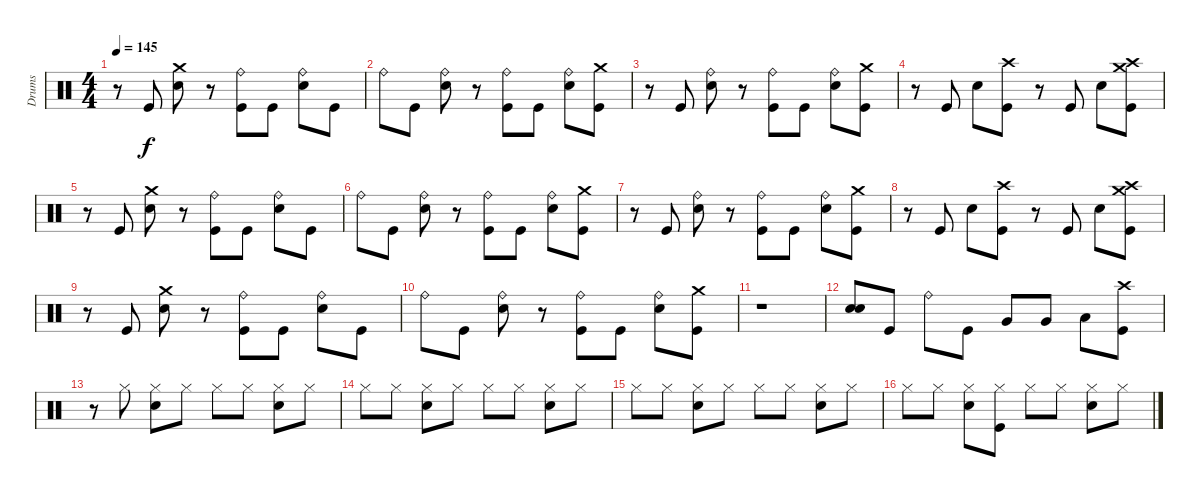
\track ("Drums" "Drums") {instrument percussion}
\staff {score}
\articulation defaults
\ts (4 4)
\tempo 145
\clef neutral
\ks c
r.8{dy f} "Kick (hit)".8 ("Crash medium (hit)" "Snare (hit) 2").8 r.8 ("Ride (bell)" "Kick (hit)").8 "Kick (hit)".8 ("Ride (bell)" "Snare (hit) 2").8 "Kick (hit)".8 |
"Ride (bell)".8 "Kick (hit)".8 ("Ride (bell)" "Snare (hit) 2").8 r.8 ("Ride (bell)" "Kick (hit)").8 "Kick (hit)".8 ("Ride (bell)" "Snare (hit) 2").8 ("Crash medium (hit)" "Kick (hit)").8 |
r.8 "Kick (hit)".8 ("Ride (bell)" "Snare (hit) 2").8 r.8 ("Ride (bell)" "Kick (hit)").8 "Kick (hit)".8 ("Ride (bell)" "Snare (hit) 2").8 ("Crash medium (hit)" "Kick (hit)").8 |
r.8 "Kick (hit)".8 "Snare (hit) 2".8 ("Crash high (hit)" "Kick (hit)").8 r.8 "Kick (hit)".8 "Snare (hit) 2".8 ("Crash high (hit)" "Crash medium (hit)" "Kick (hit)").8 |
r.8 "Kick (hit)".8 ("Crash medium (hit)" "Snare (hit) 2").8 r.8 ("Ride (bell)" "Kick (hit)").8 "Kick (hit)".8 ("Ride (bell)" "Snare (hit) 2").8 "Kick (hit)".8 |
"Ride (bell)".8 "Kick (hit)".8 ("Ride (bell)" "Snare (hit) 2").8 r.8 ("Ride (bell)" "Kick (hit)").8 "Kick (hit)".8 ("Ride (bell)" "Snare (hit) 2").8 ("Crash medium (hit)" "Kick (hit)").8 |
r.8 "Kick (hit)".8 ("Ride (bell)" "Snare (hit) 2").8 r.8 ("Ride (bell)" "Kick (hit)").8 "Kick (hit)".8 ("Ride (bell)" "Snare (hit) 2").8 ("Crash medium (hit)" "Kick (hit)").8 |
r.8 "Kick (hit)".8 "Snare (hit) 2".8 ("Crash high (hit)" "Kick (hit)").8 r.8 "Kick (hit)".8 "Snare (hit) 2".8 ("Crash high (hit)" "Crash medium (hit)" "Kick (hit)").8 |
r.8 "Kick (hit)".8 ("Crash medium (hit)" "Snare (hit) 2").8 r.8 ("Ride (bell)" "Kick (hit)").8 "Kick (hit)".8 ("Ride (bell)" "Snare (hit) 2").8 "Kick (hit)".8 |
"Ride (bell)".8 "Kick (hit)".8 ("Ride (bell)" "Snare (hit) 2").8 r.8 ("Ride (bell)" "Kick (hit)").8 "Kick (hit)".8 ("Ride (bell)" "Snare (hit) 2").8 ("Crash medium (hit)" "Kick (hit)").8 |
r.1 |
("Snare (hit) 2" "Snare (hit) 2").8 "Kick (hit)".8 "Ride (bell)".8 "Kick (hit)".8 "Very Low Tom (hit)".8 "Very Low Tom (hit)".8 "Low Floor Tom (hit)".8 ("Crash high (hit)" "Kick (hit)").8 |
r.8 "Hi-Hat (closed)".8 ("Hi-Hat (closed)" "Snare (hit) 2").8 "Hi-Hat (closed)".8 "Hi-Hat (closed)".8 "Hi-Hat (closed)".8 ("Hi-Hat (closed)" "Snare (hit) 2").8 "Hi-Hat (closed)".8 |
"Hi-Hat (closed)".8 "Hi-Hat (closed)".8 ("Hi-Hat (closed)" "Snare (hit) 2").8 "Hi-Hat (closed)".8 "Hi-Hat (closed)".8 "Hi-Hat (closed)".8 ("Hi-Hat (closed)" "Snare (hit) 2").8 "Hi-Hat (closed)".8 |
"Hi-Hat (closed)".8 "Hi-Hat (closed)".8 ("Hi-Hat (closed)" "Snare (hit) 2").8 "Hi-Hat (closed)".8 "Hi-Hat (closed)".8 "Hi-Hat (closed)".8 ("Hi-Hat (closed)" "Snare (hit) 2").8 "Hi-Hat (closed)".8 |
"Hi-Hat (closed)".8 "Hi-Hat (closed)".8 ("Hi-Hat (closed)" "Snare (hit) 2").8 ("Hi-Hat (closed)" "Kick (hit)").8 "Hi-Hat (closed)".8 "Hi-Hat (closed)".8 ("Hi-Hat (closed)" "Snare (hit) 2").8 "Hi-Hat (closed)".8
